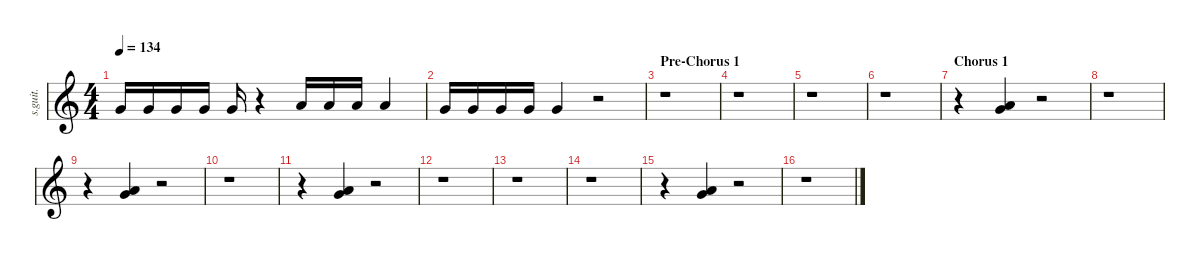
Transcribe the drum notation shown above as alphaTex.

\defaultSystemsLayout 4
\hideDynamics
\bracketExtendMode nobrackets
\track ("Chris Fehn" "s.guit.") {instrument percussion}
\staff {score}
\articulation defaults
\ts (4 4)
\tempo 134
\clef g2
\ks c "Very Low Tom (hit)".16{dy f} "Very Low Tom (hit)".16 "Very Low Tom (hit)".16 "Very Low Tom (hit)".16 "Very Low Tom (hit)".16
r.4 "Low Floor Tom (hit)".16 "Low Floor Tom (hit)".16 "Low Floor Tom (hit)".16 "Low Floor Tom (hit)".4 |
"Very Low Tom (hit)".16 "Very Low Tom (hit)".16 "Very Low Tom (hit)".16 "Very Low Tom (hit)".16 "Very Low Tom (hit)".4 r.2 |
\section ("" "Pre-Chorus 1")
r.1 |
r.1 |
r.1 |
r.1 |
\section ("" "Chorus 1")
r.4 ("Very Low Tom (hit)" "Low Floor Tom (hit)").4 r.2 |
r.1 |
r.4 ("Very Low Tom (hit)" "Low Floor Tom (hit)").4 r.2 |
r.1 |
r.4 ("Very Low Tom (hit)" "Low Floor Tom (hit)").4 r.2 |
r.1 |
r.1 |
r.1 |
r.4 ("Very Low Tom (hit)" "Low Floor Tom (hit)").4 r.2 |
r.1
